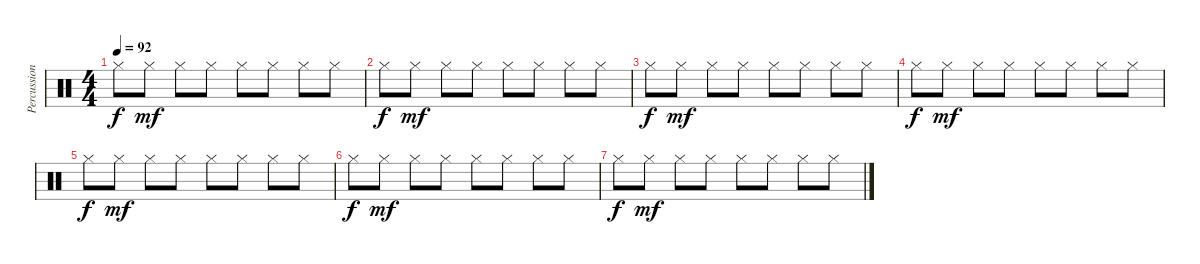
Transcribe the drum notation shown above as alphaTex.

\track ("Percussion" "Percussion") {instrument percussion}
\staff {score}
\articulation defaults
\ts (4 4)
\tempo 92
\clef neutral
\ks c "Hi-Hat (closed)".8{dy f} "Hi-Hat (closed)".8{dy mf} "Hi-Hat (closed)".8 "Hi-Hat (closed)".8 "Hi-Hat (closed)".8 "Hi-Hat (closed)".8 "Hi-Hat (closed)".8 "Hi-Hat (closed)".8
|
"Hi-Hat (closed)".8{dy f} "Hi-Hat (closed)".8{dy mf} "Hi-Hat (closed)".8 "Hi-Hat (closed)".8 "Hi-Hat (closed)".8 "Hi-Hat (closed)".8 "Hi-Hat (closed)".8 "Hi-Hat (closed)".8 |
"Hi-Hat (closed)".8{dy f} "Hi-Hat (closed)".8{dy mf} "Hi-Hat (closed)".8 "Hi-Hat (closed)".8 "Hi-Hat (closed)".8 "Hi-Hat (closed)".8 "Hi-Hat (closed)".8 "Hi-Hat (closed)".8 |
"Hi-Hat (closed)".8{dy f} "Hi-Hat (closed)".8{dy mf} "Hi-Hat (closed)".8 "Hi-Hat (closed)".8 "Hi-Hat (closed)".8 "Hi-Hat (closed)".8 "Hi-Hat (closed)".8 "Hi-Hat (closed)".8 |
"Hi-Hat (closed)".8{dy f} "Hi-Hat (closed)".8{dy mf} "Hi-Hat (closed)".8 "Hi-Hat (closed)".8 "Hi-Hat (closed)".8 "Hi-Hat (closed)".8 "Hi-Hat (closed)".8 "Hi-Hat (closed)".8 |
"Hi-Hat (closed)".8{dy f} "Hi-Hat (closed)".8{dy mf} "Hi-Hat (closed)".8 "Hi-Hat (closed)".8 "Hi-Hat (closed)".8 "Hi-Hat (closed)".8 "Hi-Hat (closed)".8 "Hi-Hat (closed)".8 |
"Hi-Hat (closed)".8{dy f} "Hi-Hat (closed)".8{dy mf} "Hi-Hat (closed)".8 "Hi-Hat (closed)".8 "Hi-Hat (closed)".8 "Hi-Hat (closed)".8 "Hi-Hat (closed)".8 "Hi-Hat (closed)".8
